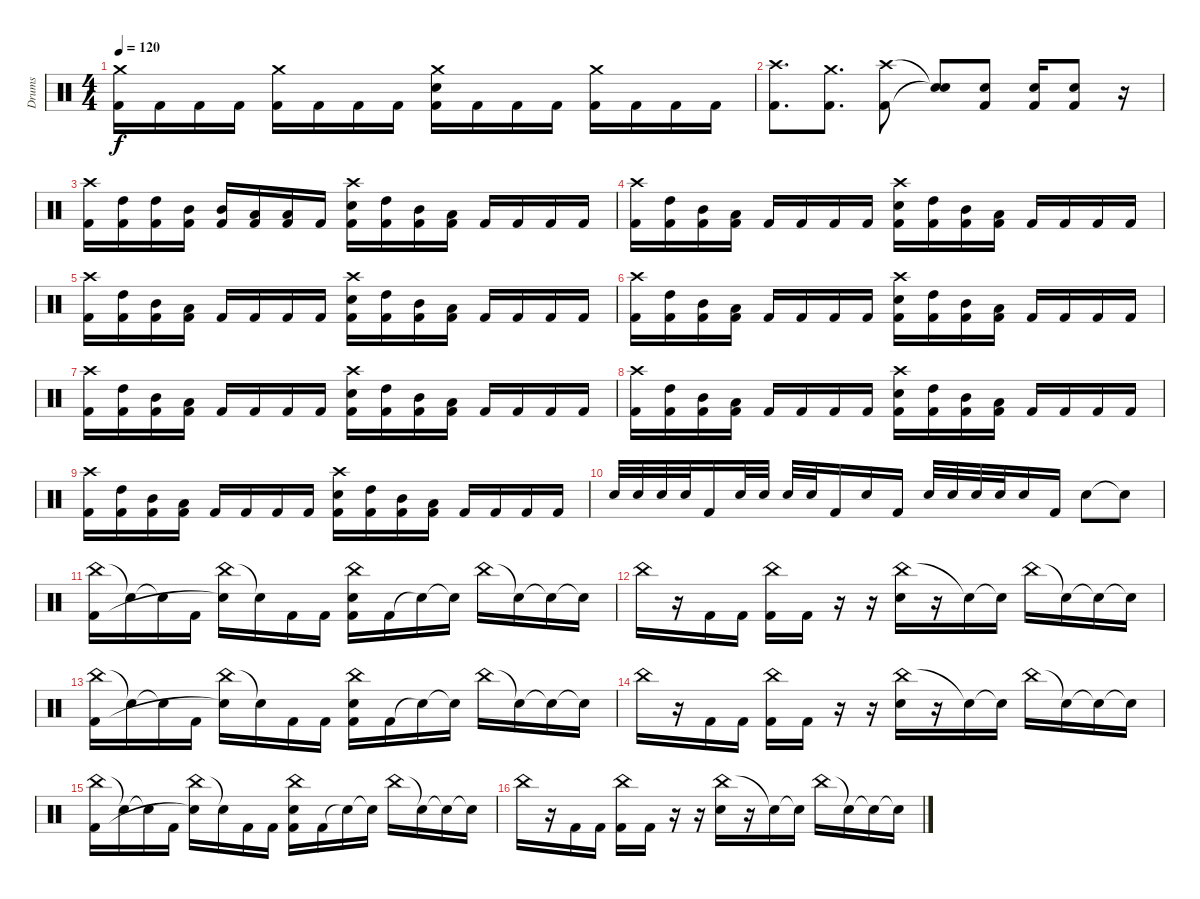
\track ("Drums" "Drums") {instrument percussion}
\staff {score}
\articulation defaults
\ts (4 4)
\tempo 120
\clef neutral
\ks c
("Crash medium (hit)" "Kick (hit) 2").16{dy f} "Kick (hit) 2".16 "Kick (hit) 2".16 "Kick (hit) 2".16 ("Crash medium (hit)" "Kick (hit) 2").16 "Kick (hit) 2".16 "Kick (hit) 2".16 "Kick (hit) 2".16 ("Crash medium (hit)" "Electric Snare (hit)" "Kick (hit) 2").16 "Kick (hit) 2".16 "Kick (hit) 2".16 "Kick (hit) 2".16 ("Crash medium (hit)" "Kick (hit) 2").16 "Kick (hit) 2".16 "Kick (hit) 2".16 "Kick (hit) 2".16 |
("Crash high (hit)" "Kick (hit) 2").8{d} ("Crash medium (hit)" "Kick (hit) 2").8{d} ("Crash high (hit)" "Kick (hit) 2").8 ("Snare (hit)"{t} "Snare (hit)"{t}).8 ("Electric Snare (hit)" "Kick (hit) 2").8 ("Electric Snare (hit)" "Kick (hit) 2").16 ("Electric Snare (hit)" "Kick (hit) 2").8 r.16 |
("Crash high (hit)" "Kick (hit) 2").16 ("High Tom (hit)" "Kick (hit) 2").16 ("High Tom (hit)" "Kick (hit) 2").16 ("Mid Tom (hit)" "Kick (hit) 2").16 ("Mid Tom (hit)" "Kick (hit) 2").16 ("Low Tom (hit)" "Kick (hit) 2").16 ("Low Tom (hit)" "Kick (hit) 2").16 "Kick (hit) 2".16 ("Crash high (hit)" "Electric Snare (hit)" "Kick (hit) 2").16 ("High Tom (hit)" "Kick (hit) 2").16 ("Mid Tom (hit)" "Kick (hit) 2").16 ("Low Tom (hit)" "Kick (hit) 2").16 "Kick (hit) 2".16 "Kick (hit) 2".16 "Kick (hit) 2".16 "Kick (hit) 2".16 |
("Crash high (hit)" "Kick (hit) 2").16 ("High Tom (hit)" "Kick (hit) 2").16 ("Mid Tom (hit)" "Kick (hit) 2").16 ("Low Tom (hit)" "Kick (hit) 2").16 "Kick (hit) 2".16 "Kick (hit) 2".16 "Kick (hit) 2".16 "Kick (hit) 2".16 ("Crash high (hit)" "Electric Snare (hit)" "Kick (hit) 2").16 ("High Tom (hit)" "Kick (hit) 2").16 ("Mid Tom (hit)" "Kick (hit) 2").16 ("Low Tom (hit)" "Kick (hit) 2").16 "Kick (hit) 2".16 "Kick (hit) 2".16 "Kick (hit) 2".16 "Kick (hit) 2".16 |
("Crash high (hit)" "Kick (hit) 2").16 ("High Tom (hit)" "Kick (hit) 2").16 ("Mid Tom (hit)" "Kick (hit) 2").16 ("Low Tom (hit)" "Kick (hit) 2").16 "Kick (hit) 2".16 "Kick (hit) 2".16 "Kick (hit) 2".16 "Kick (hit) 2".16 ("Crash high (hit)" "Electric Snare (hit)" "Kick (hit) 2").16 ("High Tom (hit)" "Kick (hit) 2").16 ("Mid Tom (hit)" "Kick (hit) 2").16 ("Low Tom (hit)" "Kick (hit) 2").16 "Kick (hit) 2".16 "Kick (hit) 2".16 "Kick (hit) 2".16 "Kick (hit) 2".16 |
("Crash high (hit)" "Kick (hit) 2").16 ("High Tom (hit)" "Kick (hit) 2").16 ("Mid Tom (hit)" "Kick (hit) 2").16 ("Low Tom (hit)" "Kick (hit) 2").16 "Kick (hit) 2".16 "Kick (hit) 2".16 "Kick (hit) 2".16 "Kick (hit) 2".16 ("Crash high (hit)" "Electric Snare (hit)" "Kick (hit) 2").16 ("High Tom (hit)" "Kick (hit) 2").16 ("Mid Tom (hit)" "Kick (hit) 2").16 ("Low Tom (hit)" "Kick (hit) 2").16 "Kick (hit) 2".16 "Kick (hit) 2".16 "Kick (hit) 2".16 "Kick (hit) 2".16 |
("Crash high (hit)" "Kick (hit) 2").16 ("High Tom (hit)" "Kick (hit) 2").16 ("Mid Tom (hit)" "Kick (hit) 2").16 ("Low Tom (hit)" "Kick (hit) 2").16 "Kick (hit) 2".16 "Kick (hit) 2".16 "Kick (hit) 2".16 "Kick (hit) 2".16 ("Crash high (hit)" "Electric Snare (hit)" "Kick (hit) 2").16 ("High Tom (hit)" "Kick (hit) 2").16 ("Mid Tom (hit)" "Kick (hit) 2").16 ("Low Tom (hit)" "Kick (hit) 2").16 "Kick (hit) 2".16 "Kick (hit) 2".16 "Kick (hit) 2".16 "Kick (hit) 2".16 |
("Crash high (hit)" "Kick (hit) 2").16 ("High Tom (hit)" "Kick (hit) 2").16 ("Mid Tom (hit)" "Kick (hit) 2").16 ("Low Tom (hit)" "Kick (hit) 2").16 "Kick (hit) 2".16 "Kick (hit) 2".16 "Kick (hit) 2".16 "Kick (hit) 2".16 ("Crash high (hit)" "Electric Snare (hit)" "Kick (hit) 2").16 ("High Tom (hit)" "Kick (hit) 2").16 ("Mid Tom (hit)" "Kick (hit) 2").16 ("Low Tom (hit)" "Kick (hit) 2").16 "Kick (hit) 2".16 "Kick (hit) 2".16 "Kick (hit) 2".16 "Kick (hit) 2".16 |
("Crash high (hit)" "Kick (hit) 2").16 ("High Tom (hit)" "Kick (hit) 2").16 ("Mid Tom (hit)" "Kick (hit) 2").16 ("Low Tom (hit)" "Kick (hit) 2").16 "Kick (hit) 2".16 "Kick (hit) 2".16 "Kick (hit) 2".16 "Kick (hit) 2".16 ("Crash high (hit)" "Electric Snare (hit)" "Kick (hit) 2").16 ("High Tom (hit)" "Kick (hit) 2").16 ("Mid Tom (hit)" "Kick (hit) 2").16 ("Low Tom (hit)" "Kick (hit) 2").16 "Kick (hit) 2".16 "Kick (hit) 2".16 "Kick (hit) 2".16 "Kick (hit) 2".16 |
"Electric Snare (hit)".32 "Electric Snare (hit)".32 "Electric Snare (hit)".32 "Electric Snare (hit)".32 "Kick (hit) 2".16 "Electric Snare (hit)".32 "Electric Snare (hit)".32 "Electric Snare (hit)".32 "Electric Snare (hit)".32 "Kick (hit) 2".16 "Electric Snare (hit)".16 "Kick (hit) 2".16 "Electric Snare (hit)".32 "Electric Snare (hit)".32 "Electric Snare (hit)".32 "Electric Snare (hit)".32 "Electric Snare (hit)".16 "Kick (hit) 2".16 "Electric Snare (hit)".8 "Snare (hit)"{t}.8 |
("China (hit)" "Kick (hit) 2").16 "Snare (hit)"{t}.16 "Snare (hit)"{t}.16 "Kick (hit) 2".16 ("China (hit)" "Snare (hit)"{t}).16 "Snare (hit)"{t}.16 "Kick (hit) 2".16 "Kick (hit) 2".16 ("Electric Snare (hit)" "China (hit)" "Kick (hit) 2").16 "Kick (hit) 2".16 "Snare (hit)"{t}.16 "Snare (hit)"{t}.16 "China (hit)".16 "Snare (hit)"{t}.16 "Snare (hit)"{t}.16 "Snare (hit)"{t}.16 |
"China (hit)".16 r.16 "Kick (hit) 2".16 "Kick (hit) 2".16 ("China (hit)" "Kick (hit) 2").16 "Kick (hit) 2".16 r.16 r.16 ("China (hit)" "Electric Snare (hit)").16 r.16 "Snare (hit)"{t}.16 "Snare (hit)"{t}.16 "China (hit)".16 "Snare (hit)"{t}.16 "Snare (hit)"{t}.16 "Snare (hit)"{t}.16 |
("China (hit)" "Kick (hit) 2").16 "Snare (hit)"{t}.16 "Snare (hit)"{t}.16 "Kick (hit) 2".16 ("China (hit)" "Snare (hit)"{t}).16 "Snare (hit)"{t}.16 "Kick (hit) 2".16 "Kick (hit) 2".16 ("Electric Snare (hit)" "China (hit)" "Kick (hit) 2").16 "Kick (hit) 2".16 "Snare (hit)"{t}.16 "Snare (hit)"{t}.16 "China (hit)".16 "Snare (hit)"{t}.16 "Snare (hit)"{t}.16 "Snare (hit)"{t}.16 |
"China (hit)".16 r.16 "Kick (hit) 2".16 "Kick (hit) 2".16 ("China (hit)" "Kick (hit) 2").16 "Kick (hit) 2".16 r.16 r.16 ("China (hit)" "Electric Snare (hit)").16 r.16 "Snare (hit)"{t}.16 "Snare (hit)"{t}.16 "China (hit)".16 "Snare (hit)"{t}.16 "Snare (hit)"{t}.16 "Snare (hit)"{t}.16 |
("China (hit)" "Kick (hit) 2").16 "Snare (hit)"{t}.16 "Snare (hit)"{t}.16 "Kick (hit) 2".16 ("China (hit)" "Snare (hit)"{t}).16 "Snare (hit)"{t}.16 "Kick (hit) 2".16 "Kick (hit) 2".16 ("Electric Snare (hit)" "China (hit)" "Kick (hit) 2").16 "Kick (hit) 2".16 "Snare (hit)"{t}.16 "Snare (hit)"{t}.16 "China (hit)".16 "Snare (hit)"{t}.16 "Snare (hit)"{t}.16 "Snare (hit)"{t}.16 |
"China (hit)".16 r.16 "Kick (hit) 2".16 "Kick (hit) 2".16 ("China (hit)" "Kick (hit) 2").16 "Kick (hit) 2".16 r.16 r.16 ("China (hit)" "Electric Snare (hit)").16 r.16 "Snare (hit)"{t}.16 "Snare (hit)"{t}.16 "China (hit)".16 "Snare (hit)"{t}.16 "Snare (hit)"{t}.16 "Snare (hit)"{t}.16
